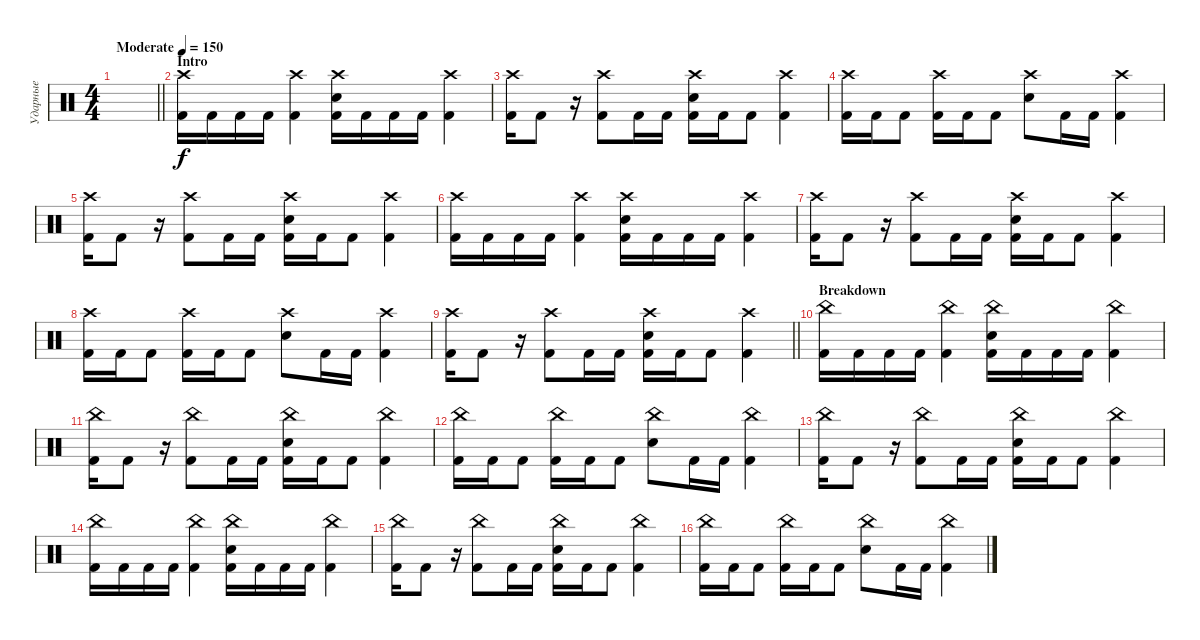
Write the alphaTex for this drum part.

\track ("Ударные" "Ударные") {instrument percussion}
\staff {score}
\articulation defaults
\ts (4 4)
\tempo (150 "Moderate")
\clef neutral
\barLineRight lightlight
\ks c
|
\section ("" "Intro")
("Crash high (hit)" "Kick (hit) 2").16 "Kick (hit) 2".16 "Kick (hit) 2".16 "Kick (hit) 2".16 ("Crash high (hit)" "Kick (hit) 2").4 ("Crash high (hit)" "Electric Snare (hit)" "Kick (hit) 2").16 "Kick (hit) 2".16 "Kick (hit) 2".16 "Kick (hit) 2".16 ("Crash high (hit)" "Kick (hit) 2").4 |
("Crash high (hit)" "Kick (hit) 2").16 "Kick (hit) 2".8 r.16 ("Crash high (hit)" "Kick (hit) 2").8 "Kick (hit) 2".16 "Kick (hit) 2".16 ("Crash high (hit)" "Electric Snare (hit)" "Kick (hit) 2").16 "Kick (hit) 2".16 "Kick (hit) 2".8 ("Crash high (hit)" "Kick (hit) 2").4 |
("Crash high (hit)" "Kick (hit) 2").16 "Kick (hit) 2".16 "Kick (hit) 2".8 ("Crash high (hit)" "Kick (hit) 2").16 "Kick (hit) 2".16 "Kick (hit) 2".8 ("Crash high (hit)" "Electric Snare (hit)").8 "Kick (hit) 2".16 "Kick (hit) 2".16 ("Crash high (hit)" "Kick (hit) 2").4 |
("Crash high (hit)" "Kick (hit) 2").16 "Kick (hit) 2".8 r.16 ("Crash high (hit)" "Kick (hit) 2").8 "Kick (hit) 2".16 "Kick (hit) 2".16 ("Crash high (hit)" "Electric Snare (hit)" "Kick (hit) 2").16 "Kick (hit) 2".16 "Kick (hit) 2".8 ("Crash high (hit)" "Kick (hit) 2").4 |
("Crash high (hit)" "Kick (hit) 2").16 "Kick (hit) 2".16 "Kick (hit) 2".16 "Kick (hit) 2".16 ("Crash high (hit)" "Kick (hit) 2").4 ("Crash high (hit)" "Electric Snare (hit)" "Kick (hit) 2").16 "Kick (hit) 2".16 "Kick (hit) 2".16 "Kick (hit) 2".16 ("Crash high (hit)" "Kick (hit) 2").4 |
("Crash high (hit)" "Kick (hit) 2").16 "Kick (hit) 2".8 r.16 ("Crash high (hit)" "Kick (hit) 2").8 "Kick (hit) 2".16 "Kick (hit) 2".16 ("Crash high (hit)" "Electric Snare (hit)" "Kick (hit) 2").16 "Kick (hit) 2".16 "Kick (hit) 2".8 ("Crash high (hit)" "Kick (hit) 2").4 |
("Crash high (hit)" "Kick (hit) 2").16 "Kick (hit) 2".16 "Kick (hit) 2".8 ("Crash high (hit)" "Kick (hit) 2").16 "Kick (hit) 2".16 "Kick (hit) 2".8 ("Crash high (hit)" "Electric Snare (hit)").8 "Kick (hit) 2".16 "Kick (hit) 2".16 ("Crash high (hit)" "Kick (hit) 2").4 |
\barLineRight lightlight
("Crash high (hit)" "Kick (hit) 2").16 "Kick (hit) 2".8 r.16 ("Crash high (hit)" "Kick (hit) 2").8 "Kick (hit) 2".16 "Kick (hit) 2".16 ("Crash high (hit)" "Electric Snare (hit)" "Kick (hit) 2").16 "Kick (hit) 2".16 "Kick (hit) 2".8 ("Crash high (hit)" "Kick (hit) 2").4 |
\section ("" "Breakdown")
("China (hit)" "Kick (hit) 2").16 "Kick (hit) 2".16 "Kick (hit) 2".16 "Kick (hit) 2".16 ("China (hit)" "Kick (hit) 2").4 ("China (hit)" "Electric Snare (hit)" "Kick (hit) 2").16 "Kick (hit) 2".16 "Kick (hit) 2".16 "Kick (hit) 2".16 ("China (hit)" "Kick (hit) 2").4 |
("China (hit)" "Kick (hit) 2").16 "Kick (hit) 2".8 r.16 ("China (hit)" "Kick (hit) 2").8 "Kick (hit) 2".16 "Kick (hit) 2".16 ("China (hit)" "Electric Snare (hit)" "Kick (hit) 2").16 "Kick (hit) 2".16 "Kick (hit) 2".8 ("China (hit)" "Kick (hit) 2").4 |
("China (hit)" "Kick (hit) 2").16 "Kick (hit) 2".16 "Kick (hit) 2".8 ("China (hit)" "Kick (hit) 2").16 "Kick (hit) 2".16 "Kick (hit) 2".8 ("China (hit)" "Electric Snare (hit)").8 "Kick (hit) 2".16 "Kick (hit) 2".16 ("China (hit)" "Kick (hit) 2").4 |
("China (hit)" "Kick (hit) 2").16 "Kick (hit) 2".8 r.16 ("China (hit)" "Kick (hit) 2").8 "Kick (hit) 2".16 "Kick (hit) 2".16 ("China (hit)" "Electric Snare (hit)" "Kick (hit) 2").16 "Kick (hit) 2".16 "Kick (hit) 2".8 ("China (hit)" "Kick (hit) 2").4 |
("China (hit)" "Kick (hit) 2").16 "Kick (hit) 2".16 "Kick (hit) 2".16 "Kick (hit) 2".16 ("China (hit)" "Kick (hit) 2").4 ("China (hit)" "Electric Snare (hit)" "Kick (hit) 2").16 "Kick (hit) 2".16 "Kick (hit) 2".16 "Kick (hit) 2".16 ("China (hit)" "Kick (hit) 2").4 |
("China (hit)" "Kick (hit) 2").16 "Kick (hit) 2".8 r.16 ("China (hit)" "Kick (hit) 2").8 "Kick (hit) 2".16 "Kick (hit) 2".16 ("China (hit)" "Electric Snare (hit)" "Kick (hit) 2").16 "Kick (hit) 2".16 "Kick (hit) 2".8 ("China (hit)" "Kick (hit) 2").4 |
("China (hit)" "Kick (hit) 2").16 "Kick (hit) 2".16 "Kick (hit) 2".8 ("China (hit)" "Kick (hit) 2").16 "Kick (hit) 2".16 "Kick (hit) 2".8 ("China (hit)" "Electric Snare (hit)").8 "Kick (hit) 2".16 "Kick (hit) 2".16 ("China (hit)" "Kick (hit) 2").4
